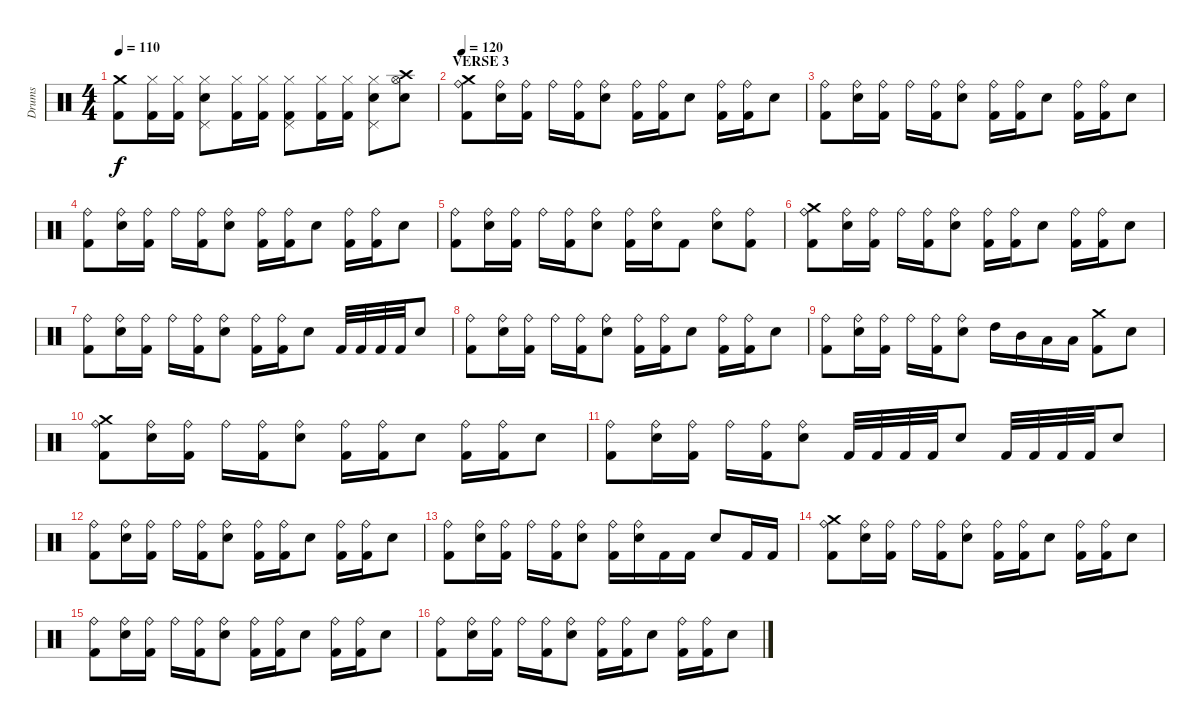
\track ("Drums" "Drums") {instrument percussion}
\staff {score}
\articulation defaults
\ts (4 4)
\tempo 110
\clef neutral
\ks c
("Crash medium (hit)" "Kick (hit) 2").8{dy f} ("Kick (hit) 2" "Hi-Hat (closed)").16 ("Kick (hit) 2" "Hi-Hat (closed)").16 ("Snare (hit) 2" "Pedal Hi-Hat (hit)" "Hi-Hat (closed)").8 ("Kick (hit) 2" "Hi-Hat (closed)").16 ("Kick (hit) 2" "Hi-Hat (closed)").16 ("Kick (hit) 2" "Pedal Hi-Hat (hit)" "Hi-Hat (closed)").8 ("Kick (hit) 2" "Hi-Hat (closed)").16 ("Kick (hit) 2" "Hi-Hat (closed)").16 ("Snare (hit) 2" "Pedal Hi-Hat (hit)" "Hi-Hat (closed)").8 ("Crash high (hit)" "Snare (hit) 2" "Hi-Hat (open)").8 |
\section ("" "VERSE 3")
\tempo 120
("Crash medium (hit)" "Kick (hit) 2" "Ride (bell)").8 ("Snare (hit) 2" "Ride (bell)").16 ("Kick (hit) 2" "Ride (bell)").16 "Ride (bell)".16 ("Kick (hit) 2" "Ride (bell)").16 ("Snare (hit) 2" "Ride (bell)").8 ("Kick (hit) 2" "Ride (bell)").16 ("Kick (hit) 2" "Ride (bell)").16 "Snare (hit) 2".8 ("Kick (hit) 2" "Ride (bell)").16 ("Kick (hit) 2" "Ride (bell)").16 "Snare (hit) 2".8 |
("Kick (hit) 2" "Ride (bell)").8 ("Snare (hit) 2" "Ride (bell)").16 ("Kick (hit) 2" "Ride (bell)").16 "Ride (bell)".16 ("Kick (hit) 2" "Ride (bell)").16 ("Snare (hit) 2" "Ride (bell)").8 ("Kick (hit) 2" "Ride (bell)").16 ("Kick (hit) 2" "Ride (bell)").16 "Snare (hit) 2".8 ("Kick (hit) 2" "Ride (bell)").16 ("Kick (hit) 2" "Ride (bell)").16 "Snare (hit) 2".8 |
("Kick (hit) 2" "Ride (bell)").8 ("Snare (hit) 2" "Ride (bell)").16 ("Kick (hit) 2" "Ride (bell)").16 "Ride (bell)".16 ("Kick (hit) 2" "Ride (bell)").16 ("Snare (hit) 2" "Ride (bell)").8 ("Kick (hit) 2" "Ride (bell)").16 ("Kick (hit) 2" "Ride (bell)").16 "Snare (hit) 2".8 ("Kick (hit) 2" "Ride (bell)").16 ("Kick (hit) 2" "Ride (bell)").16 "Snare (hit) 2".8 |
("Kick (hit) 2" "Ride (bell)").8 ("Snare (hit) 2" "Ride (bell)").16 ("Kick (hit) 2" "Ride (bell)").16 "Ride (bell)".16 ("Kick (hit) 2" "Ride (bell)").16 ("Snare (hit) 2" "Ride (bell)").8 ("Kick (hit) 2" "Ride (bell)").16 ("Snare (hit) 2" "Ride (bell)").16 "Kick (hit) 2".8 ("Snare (hit) 2" "Ride (bell)").8 ("Kick (hit) 2" "Ride (bell)").8 |
("Crash medium (hit)" "Kick (hit) 2" "Ride (bell)").8 ("Snare (hit) 2" "Ride (bell)").16 ("Kick (hit) 2" "Ride (bell)").16 "Ride (bell)".16 ("Kick (hit) 2" "Ride (bell)").16 ("Snare (hit) 2" "Ride (bell)").8 ("Kick (hit) 2" "Ride (bell)").16 ("Kick (hit) 2" "Ride (bell)").16 "Snare (hit) 2".8 ("Kick (hit) 2" "Ride (bell)").16 ("Kick (hit) 2" "Ride (bell)").16 "Snare (hit) 2".8 |
("Kick (hit) 2" "Ride (bell)").8 ("Snare (hit) 2" "Ride (bell)").16 ("Kick (hit) 2" "Ride (bell)").16 "Ride (bell)".16 ("Kick (hit) 2" "Ride (bell)").16 ("Snare (hit) 2" "Ride (bell)").8 ("Kick (hit) 2" "Ride (bell)").16 ("Kick (hit) 2" "Ride (bell)").16 "Snare (hit) 2".8 "Kick (hit) 2".32 "Kick (hit) 2".32 "Kick (hit) 2".32 "Kick (hit) 2".32 "Snare (hit) 2".8 |
("Kick (hit) 2" "Ride (bell)").8 ("Snare (hit) 2" "Ride (bell)").16 ("Kick (hit) 2" "Ride (bell)").16 "Ride (bell)".16 ("Kick (hit) 2" "Ride (bell)").16 ("Snare (hit) 2" "Ride (bell)").8 ("Kick (hit) 2" "Ride (bell)").16 ("Kick (hit) 2" "Ride (bell)").16 "Snare (hit) 2".8 ("Kick (hit) 2" "Ride (bell)").16 ("Kick (hit) 2" "Ride (bell)").16 "Snare (hit) 2".8 |
("Kick (hit) 2" "Ride (bell)").8 ("Snare (hit) 2" "Ride (bell)").16 ("Kick (hit) 2" "Ride (bell)").16 "Ride (bell)".16 ("Kick (hit) 2" "Ride (bell)").16 ("Snare (hit) 2" "Ride (bell)").8 "High Tom (hit)".16 "Mid Tom (hit)".16 "Low Tom (hit)".16 "Low Tom (hit)".16 ("Crash medium (hit)" "Kick (hit) 2").8 "Snare (hit) 2".8 |
("Crash medium (hit)" "Kick (hit) 2" "Ride (bell)").8 ("Snare (hit) 2" "Ride (bell)").16 ("Kick (hit) 2" "Ride (bell)").16 "Ride (bell)".16 ("Kick (hit) 2" "Ride (bell)").16 ("Snare (hit) 2" "Ride (bell)").8 ("Kick (hit) 2" "Ride (bell)").16 ("Kick (hit) 2" "Ride (bell)").16 "Snare (hit) 2".8 ("Kick (hit) 2" "Ride (bell)").16 ("Kick (hit) 2" "Ride (bell)").16 "Snare (hit) 2".8 |
("Kick (hit) 2" "Ride (bell)").8 ("Snare (hit) 2" "Ride (bell)").16 ("Kick (hit) 2" "Ride (bell)").16 "Ride (bell)".16 ("Kick (hit) 2" "Ride (bell)").16 ("Snare (hit) 2" "Ride (bell)").8 "Kick (hit) 2".32 "Kick (hit) 2".32 "Kick (hit) 2".32 "Kick (hit) 2".32 "Snare (hit) 2".8 "Kick (hit) 2".32 "Kick (hit) 2".32 "Kick (hit) 2".32 "Kick (hit) 2".32 "Snare (hit) 2".8 |
("Kick (hit) 2" "Ride (bell)").8 ("Snare (hit) 2" "Ride (bell)").16 ("Kick (hit) 2" "Ride (bell)").16 "Ride (bell)".16 ("Kick (hit) 2" "Ride (bell)").16 ("Snare (hit) 2" "Ride (bell)").8 ("Kick (hit) 2" "Ride (bell)").16 ("Kick (hit) 2" "Ride (bell)").16 "Snare (hit) 2".8 ("Kick (hit) 2" "Ride (bell)").16 ("Kick (hit) 2" "Ride (bell)").16 "Snare (hit) 2".8 |
("Kick (hit) 2" "Ride (bell)").8 ("Snare (hit) 2" "Ride (bell)").16 ("Kick (hit) 2" "Ride (bell)").16 "Ride (bell)".16 ("Kick (hit) 2" "Ride (bell)").16 ("Snare (hit) 2" "Ride (bell)").8 ("Kick (hit) 2" "Ride (bell)").16 ("Snare (hit) 2" "Ride (bell)").16 "Kick (hit) 2".16 "Kick (hit) 2".16 "Snare (hit) 2".8 "Kick (hit) 2".16 "Kick (hit) 2".16 |
("Crash medium (hit)" "Kick (hit) 2" "Ride (bell)").8 ("Snare (hit) 2" "Ride (bell)").16 ("Kick (hit) 2" "Ride (bell)").16 "Ride (bell)".16 ("Kick (hit) 2" "Ride (bell)").16 ("Snare (hit) 2" "Ride (bell)").8 ("Kick (hit) 2" "Ride (bell)").16 ("Kick (hit) 2" "Ride (bell)").16 "Snare (hit) 2".8 ("Kick (hit) 2" "Ride (bell)").16 ("Kick (hit) 2" "Ride (bell)").16 "Snare (hit) 2".8 |
("Kick (hit) 2" "Ride (bell)").8 ("Snare (hit) 2" "Ride (bell)").16 ("Kick (hit) 2" "Ride (bell)").16 "Ride (bell)".16 ("Kick (hit) 2" "Ride (bell)").16 ("Snare (hit) 2" "Ride (bell)").8 ("Kick (hit) 2" "Ride (bell)").16 ("Kick (hit) 2" "Ride (bell)").16 "Snare (hit) 2".8 ("Kick (hit) 2" "Ride (bell)").16 ("Kick (hit) 2" "Ride (bell)").16 "Snare (hit) 2".8 |
("Kick (hit) 2" "Ride (bell)").8 ("Snare (hit) 2" "Ride (bell)").16 ("Kick (hit) 2" "Ride (bell)").16 "Ride (bell)".16 ("Kick (hit) 2" "Ride (bell)").16 ("Snare (hit) 2" "Ride (bell)").8 ("Kick (hit) 2" "Ride (bell)").16 ("Kick (hit) 2" "Ride (bell)").16 "Snare (hit) 2".8 ("Kick (hit) 2" "Ride (bell)").16 ("Kick (hit) 2" "Ride (bell)").16 "Snare (hit) 2".8
